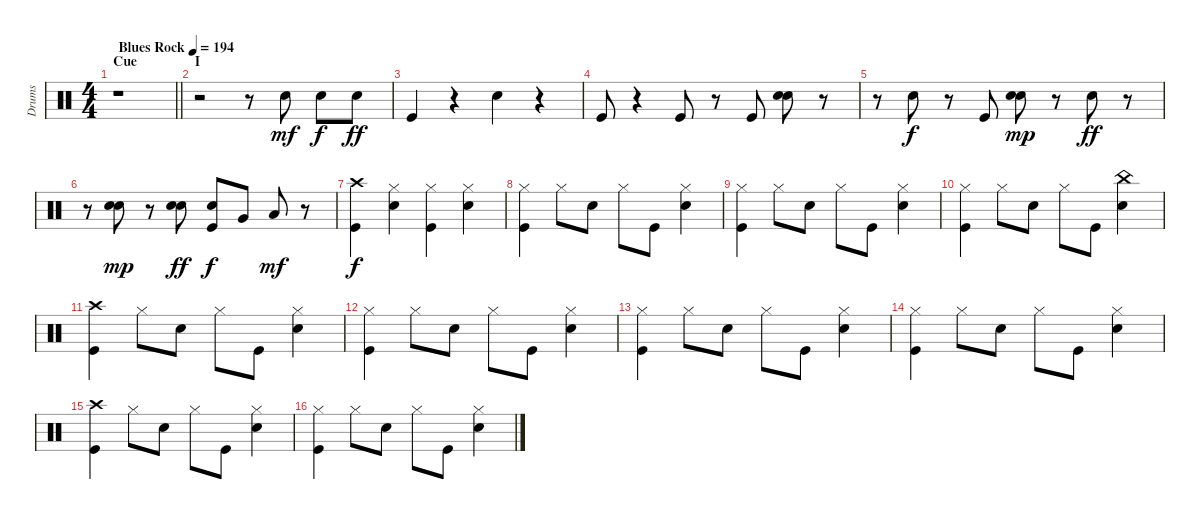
\track ("Drums" "Drums") {instrument percussion}
\staff {score}
\articulation defaults
\ts (4 4)
\section ("" "Cue")
\tempo (194 "Blues Rock")
\clef neutral
\barLineRight lightlight
\ks c
r.1{dy mf} |
\section ("" "I")
r.2 r.8 "Snare (hit) 2".8 "Snare (hit) 2".8{dy f} "Snare (hit) 2".8{dy ff} |
"Kick (hit)".4 r.4 "Snare (hit) 2".4 r.4 |
"Kick (hit)".8 r.4 "Kick (hit)".8 r.8 "Kick (hit)".8 ("Snare (hit) 2" "Snare (hit) 2").8 r.8 |
r.8 "Snare (hit) 2".8{dy f} r.8 "Kick (hit)".8 ("Snare (hit) 2" "Snare (hit) 2").8{dy mp} r.8 "Snare (hit) 2".8{dy ff} r.8 |
r.8 ("Snare (hit) 2" "Snare (hit) 2").8{dy mp} r.8 ("Snare (hit) 2" "Snare (hit) 2").8{dy ff} ("Kick (hit)" "Snare (hit) 2").8{dy f} "Very Low Tom (hit)".8 "Low Floor Tom (hit)".8{dy mf} r.8 |
("Kick (hit)" "Crash high (hit)").4{dy f} ("Snare (hit) 2" "Hi-Hat (closed)").4 ("Kick (hit)" "Hi-Hat (closed)").4 ("Snare (hit) 2" "Hi-Hat (closed)").4 |
("Kick (hit)" "Hi-Hat (closed)").4 "Hi-Hat (closed)".8 "Snare (hit) 2".8 "Hi-Hat (closed)".8 "Kick (hit)".8 ("Snare (hit) 2" "Hi-Hat (closed)").4 |
("Kick (hit)" "Hi-Hat (closed)").4 "Hi-Hat (closed)".8 "Snare (hit) 2".8 "Hi-Hat (closed)".8 "Kick (hit)".8 ("Snare (hit) 2" "Hi-Hat (closed)").4 |
("Kick (hit)" "Hi-Hat (closed)").4 "Hi-Hat (closed)".8 "Snare (hit) 2".8 "Hi-Hat (closed)".8 "Kick (hit)".8 ("Snare (hit) 2" "China (hit)").4 |
("Kick (hit)" "Crash high (hit)").4 "Hi-Hat (closed)".8 "Snare (hit) 2".8 "Hi-Hat (closed)".8 "Kick (hit)".8 ("Snare (hit) 2" "Hi-Hat (closed)").4 |
("Kick (hit)" "Hi-Hat (closed)").4 "Hi-Hat (closed)".8 "Snare (hit) 2".8 "Hi-Hat (closed)".8 "Kick (hit)".8 ("Snare (hit) 2" "Hi-Hat (closed)").4 |
("Kick (hit)" "Hi-Hat (closed)").4 "Hi-Hat (closed)".8 "Snare (hit) 2".8 "Hi-Hat (closed)".8 "Kick (hit)".8 ("Snare (hit) 2" "Hi-Hat (closed)").4 |
("Kick (hit)" "Hi-Hat (closed)").4 "Hi-Hat (closed)".8 "Snare (hit) 2".8 "Hi-Hat (closed)".8 "Kick (hit)".8 ("Snare (hit) 2" "Hi-Hat (closed)").4 |
("Kick (hit)" "Crash high (hit)").4 "Hi-Hat (closed)".8 "Snare (hit) 2".8 "Hi-Hat (closed)".8 "Kick (hit)".8 ("Snare (hit) 2" "Hi-Hat (closed)").4 |
("Kick (hit)" "Hi-Hat (closed)").4 "Hi-Hat (closed)".8 "Snare (hit) 2".8 "Hi-Hat (closed)".8 "Kick (hit)".8 ("Snare (hit) 2" "Hi-Hat (closed)").4
